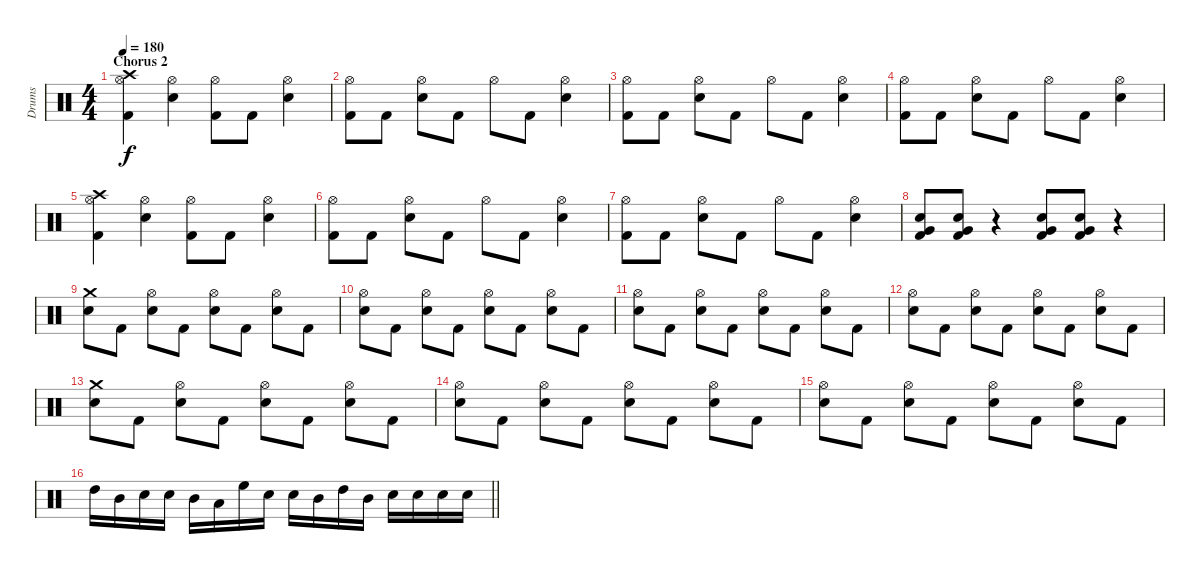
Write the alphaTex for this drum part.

\track ("Drums" "Drums") {instrument percussion}
\staff {score}
\articulation defaults
\ts (4 4)
\section ("" "Chorus 2")
\tempo 180
\clef neutral
\ks c
("Crash high (hit)" "Hi-Hat (open)" "Kick (hit) 2").4{dy f} ("Hi-Hat (open)" "Electric Snare (hit)").4 ("Hi-Hat (open)" "Kick (hit) 2").8 "Kick (hit) 2".8 ("Hi-Hat (open)" "Electric Snare (hit)").4 |
("Hi-Hat (open)" "Kick (hit) 2").8 "Kick (hit) 2".8 ("Hi-Hat (open)" "Electric Snare (hit)").8 "Kick (hit) 2".8 "Hi-Hat (open)".8 "Kick (hit) 2".8 ("Hi-Hat (open)" "Electric Snare (hit)").4 |
("Hi-Hat (open)" "Kick (hit) 2").8 "Kick (hit) 2".8 ("Hi-Hat (open)" "Electric Snare (hit)").8 "Kick (hit) 2".8 "Hi-Hat (open)".8 "Kick (hit) 2".8 ("Hi-Hat (open)" "Electric Snare (hit)").4 |
("Hi-Hat (open)" "Kick (hit) 2").8 "Kick (hit) 2".8 ("Hi-Hat (open)" "Electric Snare (hit)").8 "Kick (hit) 2".8 "Hi-Hat (open)".8 "Kick (hit) 2".8 ("Hi-Hat (open)" "Electric Snare (hit)").4 |
("Crash high (hit)" "Hi-Hat (open)" "Kick (hit) 2").4 ("Hi-Hat (open)" "Electric Snare (hit)").4 ("Hi-Hat (open)" "Kick (hit) 2").8 "Kick (hit) 2".8 ("Hi-Hat (open)" "Electric Snare (hit)").4 |
("Hi-Hat (open)" "Kick (hit) 2").8 "Kick (hit) 2".8 ("Hi-Hat (open)" "Electric Snare (hit)").8 "Kick (hit) 2".8 "Hi-Hat (open)".8 "Kick (hit) 2".8 ("Hi-Hat (open)" "Electric Snare (hit)").4 |
("Hi-Hat (open)" "Kick (hit) 2").8 "Kick (hit) 2".8 ("Hi-Hat (open)" "Electric Snare (hit)").8 "Kick (hit) 2".8 "Hi-Hat (open)".8 "Kick (hit) 2".8 ("Hi-Hat (open)" "Electric Snare (hit)").4 |
("Very Low Tom (hit)" "Electric Snare (hit)" "Kick (hit) 2").8 ("Very Low Tom (hit)" "Electric Snare (hit)" "Kick (hit) 2").8 r.4 ("Very Low Tom (hit)" "Electric Snare (hit)" "Kick (hit) 2").8 ("Very Low Tom (hit)" "Electric Snare (hit)" "Kick (hit) 2").8 r.4 |
("Crash medium (hit)" "Electric Snare (hit)").8 "Kick (hit) 2".8 ("Hi-Hat (open)" "Electric Snare (hit)").8 "Kick (hit) 2".8 ("Hi-Hat (open)" "Electric Snare (hit)").8 "Kick (hit) 2".8 ("Hi-Hat (open)" "Electric Snare (hit)").8 "Kick (hit) 2".8 |
("Hi-Hat (open)" "Electric Snare (hit)").8 "Kick (hit) 2".8 ("Hi-Hat (open)" "Electric Snare (hit)").8 "Kick (hit) 2".8 ("Hi-Hat (open)" "Electric Snare (hit)").8 "Kick (hit) 2".8 ("Hi-Hat (open)" "Electric Snare (hit)").8 "Kick (hit) 2".8 |
("Hi-Hat (open)" "Electric Snare (hit)").8 "Kick (hit) 2".8 ("Hi-Hat (open)" "Electric Snare (hit)").8 "Kick (hit) 2".8 ("Hi-Hat (open)" "Electric Snare (hit)").8 "Kick (hit) 2".8 ("Hi-Hat (open)" "Electric Snare (hit)").8 "Kick (hit) 2".8 |
("Hi-Hat (open)" "Electric Snare (hit)").8 "Kick (hit) 2".8 ("Hi-Hat (open)" "Electric Snare (hit)").8 "Kick (hit) 2".8 ("Hi-Hat (open)" "Electric Snare (hit)").8 "Kick (hit) 2".8 ("Hi-Hat (open)" "Electric Snare (hit)").8 "Kick (hit) 2".8 |
("Crash medium (hit)" "Electric Snare (hit)").8 "Kick (hit) 2".8 ("Hi-Hat (open)" "Electric Snare (hit)").8 "Kick (hit) 2".8 ("Hi-Hat (open)" "Electric Snare (hit)").8 "Kick (hit) 2".8 ("Hi-Hat (open)" "Electric Snare (hit)").8 "Kick (hit) 2".8 |
("Hi-Hat (open)" "Electric Snare (hit)").8 "Kick (hit) 2".8 ("Hi-Hat (open)" "Electric Snare (hit)").8 "Kick (hit) 2".8 ("Hi-Hat (open)" "Electric Snare (hit)").8 "Kick (hit) 2".8 ("Hi-Hat (open)" "Electric Snare (hit)").8 "Kick (hit) 2".8 |
("Hi-Hat (open)" "Electric Snare (hit)").8 "Kick (hit) 2".8 ("Hi-Hat (open)" "Electric Snare (hit)").8 "Kick (hit) 2".8 ("Hi-Hat (open)" "Electric Snare (hit)").8 "Kick (hit) 2".8 ("Hi-Hat (open)" "Electric Snare (hit)").8 "Kick (hit) 2".8 |
\barLineRight lightlight "High Tom (hit)".16 "Mid Tom (hit)".16 "Electric Snare (hit)".16 "Electric Snare (hit)".16 "Mid Tom (hit)".16 "Low Tom (hit)".16 "High Floor Tom (hit)".16 "Electric Snare (hit)".16 "Electric Snare (hit)".16 "Mid Tom (hit)".16 "High Tom (hit)".16 "Mid Tom (hit)".16 "Electric Snare (hit)".16 "Electric Snare (hit)".16 "Electric Snare (hit)".16 "Electric Snare (hit)".16
